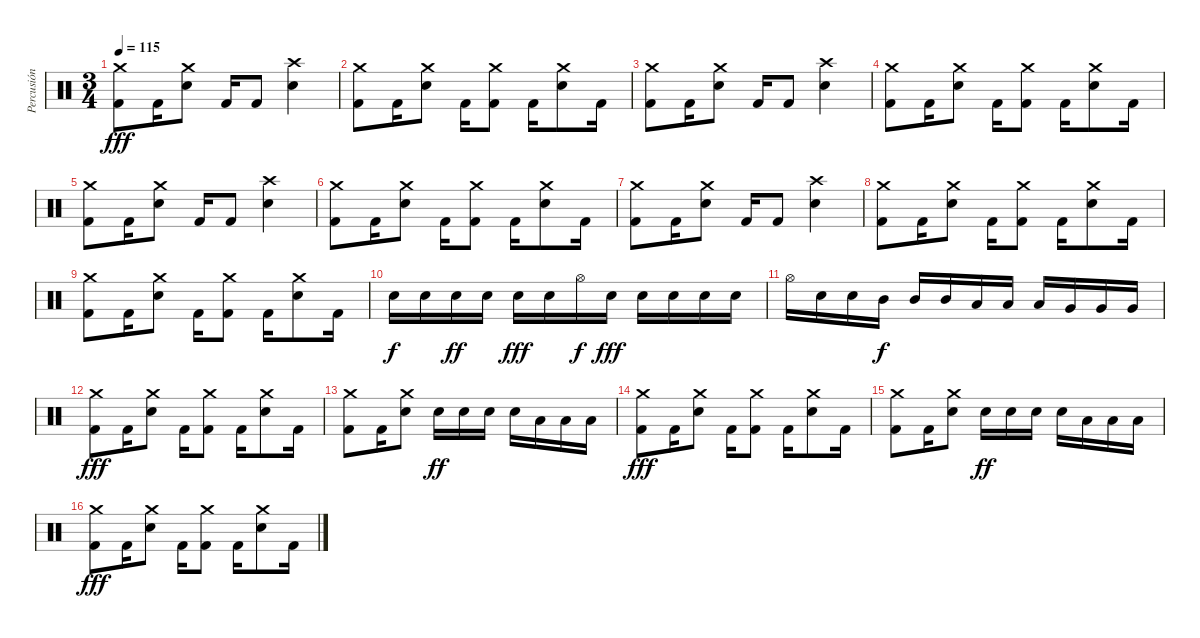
\track ("Percusión" "Percusión") {instrument percussion}
\staff {score}
\articulation defaults
\ts (3 4)
\tempo 115
\clef neutral
\ks c
("Crash medium (hit)" "Kick (hit) 2").8{dy fff} "Kick (hit) 2".16 ("Crash medium (hit)" "Electric Snare (hit)").8 "Kick (hit) 2".16 "Kick (hit) 2".8 ("Crash high (hit)" "Electric Snare (hit)").4 |
("Crash medium (hit)" "Kick (hit) 2").8 "Kick (hit) 2".16 ("Crash medium (hit)" "Electric Snare (hit)").8 "Kick (hit) 2".16 ("Crash medium (hit)" "Kick (hit) 2").8 "Kick (hit) 2".16 ("Crash medium (hit)" "Electric Snare (hit)").8 "Kick (hit) 2".16 |
("Crash medium (hit)" "Kick (hit) 2").8 "Kick (hit) 2".16 ("Crash medium (hit)" "Electric Snare (hit)").8 "Kick (hit) 2".16 "Kick (hit) 2".8 ("Crash high (hit)" "Electric Snare (hit)").4 |
("Crash medium (hit)" "Kick (hit) 2").8 "Kick (hit) 2".16 ("Crash medium (hit)" "Electric Snare (hit)").8 "Kick (hit) 2".16 ("Crash medium (hit)" "Kick (hit) 2").8 "Kick (hit) 2".16 ("Crash medium (hit)" "Electric Snare (hit)").8 "Kick (hit) 2".16 |
("Crash medium (hit)" "Kick (hit) 2").8 "Kick (hit) 2".16 ("Crash medium (hit)" "Electric Snare (hit)").8 "Kick (hit) 2".16 "Kick (hit) 2".8 ("Crash high (hit)" "Electric Snare (hit)").4 |
("Crash medium (hit)" "Kick (hit) 2").8 "Kick (hit) 2".16 ("Crash medium (hit)" "Electric Snare (hit)").8 "Kick (hit) 2".16 ("Crash medium (hit)" "Kick (hit) 2").8 "Kick (hit) 2".16 ("Crash medium (hit)" "Electric Snare (hit)").8 "Kick (hit) 2".16 |
("Crash medium (hit)" "Kick (hit) 2").8 "Kick (hit) 2".16 ("Crash medium (hit)" "Electric Snare (hit)").8 "Kick (hit) 2".16 "Kick (hit) 2".8 ("Crash high (hit)" "Electric Snare (hit)").4 |
("Crash medium (hit)" "Kick (hit) 2").8 "Kick (hit) 2".16 ("Crash medium (hit)" "Electric Snare (hit)").8 "Kick (hit) 2".16 ("Crash medium (hit)" "Kick (hit) 2").8 "Kick (hit) 2".16 ("Crash medium (hit)" "Electric Snare (hit)").8 "Kick (hit) 2".16 |
("Crash medium (hit)" "Kick (hit) 2").8 "Kick (hit) 2".16 ("Crash medium (hit)" "Electric Snare (hit)").8 "Kick (hit) 2".16 ("Crash medium (hit)" "Kick (hit) 2").8 "Kick (hit) 2".16 ("Crash medium (hit)" "Electric Snare (hit)").8 "Kick (hit) 2".16 |
"Electric Snare (hit)".16{dy f} "Electric Snare (hit)".16 "Electric Snare (hit)".16{dy ff} "Electric Snare (hit)".16 "Electric Snare (hit)".16{dy fff} "Electric Snare (hit)".16 "Hi-Hat (open)".16{dy f} "Electric Snare (hit)".16{dy fff} "Electric Snare (hit)".16 "Electric Snare (hit)".16 "Electric Snare (hit)".16 "Electric Snare (hit)".16 |
"Hi-Hat (open)".16 "Electric Snare (hit)".16 "Electric Snare (hit)".16 "Mid Tom (hit)".16{dy f} "Mid Tom (hit)".16 "Mid Tom (hit)".16 "Low Tom (hit)".16 "Low Tom (hit)".16 "Low Tom (hit)".16 "Very Low Tom (hit)".16 "Very Low Tom (hit)".16 "Very Low Tom (hit)".16 |
("Crash medium (hit)" "Kick (hit) 2").8{dy fff} "Kick (hit) 2".16 ("Crash medium (hit)" "Electric Snare (hit)").8 "Kick (hit) 2".16 ("Crash medium (hit)" "Kick (hit) 2").8 "Kick (hit) 2".16 ("Crash medium (hit)" "Electric Snare (hit)").8 "Kick (hit) 2".16 |
("Crash medium (hit)" "Kick (hit) 2").8 "Kick (hit) 2".16 ("Crash medium (hit)" "Electric Snare (hit)").8 "Electric Snare (hit)".16{dy ff} "Electric Snare (hit)".16 "Electric Snare (hit)".16 "Electric Snare (hit)".16 "Low Tom (hit)".16 "Low Tom (hit)".16 "Low Tom (hit)".16 |
("Crash medium (hit)" "Kick (hit) 2").8{dy fff} "Kick (hit) 2".16 ("Crash medium (hit)" "Electric Snare (hit)").8 "Kick (hit) 2".16 ("Crash medium (hit)" "Kick (hit) 2").8 "Kick (hit) 2".16 ("Crash medium (hit)" "Electric Snare (hit)").8 "Kick (hit) 2".16 |
("Crash medium (hit)" "Kick (hit) 2").8 "Kick (hit) 2".16 ("Crash medium (hit)" "Electric Snare (hit)").8 "Electric Snare (hit)".16{dy ff} "Electric Snare (hit)".16 "Electric Snare (hit)".16 "Electric Snare (hit)".16 "Low Tom (hit)".16 "Low Tom (hit)".16 "Low Tom (hit)".16 |
("Crash medium (hit)" "Kick (hit) 2").8{dy fff} "Kick (hit) 2".16 ("Crash medium (hit)" "Electric Snare (hit)").8 "Kick (hit) 2".16 ("Crash medium (hit)" "Kick (hit) 2").8 "Kick (hit) 2".16 ("Crash medium (hit)" "Electric Snare (hit)").8 "Kick (hit) 2".16
